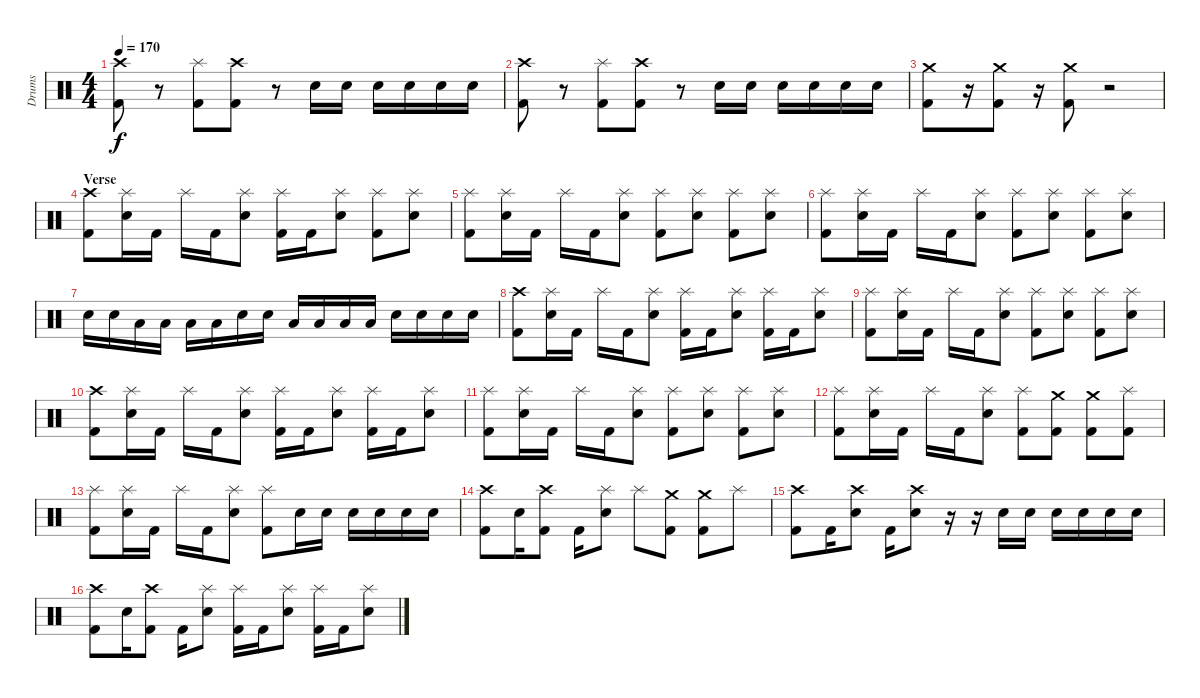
\track ("Drums" "Drums") {instrument percussion}
\staff {score}
\articulation defaults
\ts (4 4)
\tempo 170
\clef neutral
\ks c
("Crash high (hit)" "Kick (hit) 2").8{dy f} r.8 ("Splash (hit)" "Kick (hit) 2").8 ("Crash high (hit)" "Kick (hit) 2").8 r.8 "Electric Snare (hit)".16 "Electric Snare (hit)".16 "Electric Snare (hit)".16 "Electric Snare (hit)".16 "Electric Snare (hit)".16 "Electric Snare (hit)".16 |
("Crash high (hit)" "Kick (hit) 2").8 r.8 ("Splash (hit)" "Kick (hit) 2").8 ("Crash high (hit)" "Kick (hit) 2").8 r.8 "Electric Snare (hit)".16 "Electric Snare (hit)".16 "Electric Snare (hit)".16 "Electric Snare (hit)".16 "Electric Snare (hit)".16 "Electric Snare (hit)".16 |
("Crash medium (hit)" "Kick (hit) 2").8 r.16 ("Crash medium (hit)" "Kick (hit) 2").8 r.16 ("Crash medium (hit)" "Kick (hit) 2").8 r.2 |
\section ("" "Verse")
("Crash high (hit)" "Kick (hit) 2").8 ("Splash (hit)" "Electric Snare (hit)").16 "Kick (hit) 2".16 "Splash (hit)".16 "Kick (hit) 2".16 ("Splash (hit)" "Electric Snare (hit)").8 ("Splash (hit)" "Kick (hit) 2").16 "Kick (hit) 2".16 ("Splash (hit)" "Electric Snare (hit)").8 ("Splash (hit)" "Kick (hit) 2").8 ("Splash (hit)" "Electric Snare (hit)").8 |
("Splash (hit)" "Kick (hit) 2").8 ("Splash (hit)" "Electric Snare (hit)").16 "Kick (hit) 2".16 "Splash (hit)".16 "Kick (hit) 2".16 ("Splash (hit)" "Electric Snare (hit)").8 ("Splash (hit)" "Kick (hit) 2").8 ("Splash (hit)" "Electric Snare (hit)").8 ("Splash (hit)" "Kick (hit) 2").8 ("Splash (hit)" "Electric Snare (hit)").8 |
("Splash (hit)" "Kick (hit) 2").8 ("Splash (hit)" "Electric Snare (hit)").16 "Kick (hit) 2".16 "Splash (hit)".16 "Kick (hit) 2".16 ("Splash (hit)" "Electric Snare (hit)").8 ("Splash (hit)" "Kick (hit) 2").8 ("Splash (hit)" "Electric Snare (hit)").8 ("Splash (hit)" "Kick (hit) 2").8 ("Splash (hit)" "Electric Snare (hit)").8 |
"Electric Snare (hit)".16 "Electric Snare (hit)".16 "Low Tom (hit)".16 "Low Tom (hit)".16 "Low Tom (hit)".16 "Low Tom (hit)".16 "Electric Snare (hit)".16 "Electric Snare (hit)".16 "Low Tom (hit)".16 "Low Tom (hit)".16 "Low Tom (hit)".16 "Low Tom (hit)".16 "Electric Snare (hit)".16 "Electric Snare (hit)".16 "Electric Snare (hit)".16 "Electric Snare (hit)".16 |
("Crash high (hit)" "Kick (hit) 2").8 ("Splash (hit)" "Electric Snare (hit)").16 "Kick (hit) 2".16 "Splash (hit)".16 "Kick (hit) 2".16 ("Splash (hit)" "Electric Snare (hit)").8 ("Splash (hit)" "Kick (hit) 2").16 "Kick (hit) 2".16 ("Splash (hit)" "Electric Snare (hit)").8 ("Splash (hit)" "Kick (hit) 2").16 "Kick (hit) 2".16 ("Splash (hit)" "Electric Snare (hit)").8 |
("Splash (hit)" "Kick (hit) 2").8 ("Splash (hit)" "Electric Snare (hit)").16 "Kick (hit) 2".16 "Splash (hit)".16 "Kick (hit) 2".16 ("Splash (hit)" "Electric Snare (hit)").8 ("Splash (hit)" "Kick (hit) 2").8 ("Splash (hit)" "Electric Snare (hit)").8 ("Splash (hit)" "Kick (hit) 2").8 ("Splash (hit)" "Electric Snare (hit)").8 |
("Crash high (hit)" "Kick (hit) 2").8 ("Splash (hit)" "Electric Snare (hit)").16 "Kick (hit) 2".16 "Splash (hit)".16 "Kick (hit) 2".16 ("Splash (hit)" "Electric Snare (hit)").8 ("Splash (hit)" "Kick (hit) 2").16 "Kick (hit) 2".16 ("Splash (hit)" "Electric Snare (hit)").8 ("Splash (hit)" "Kick (hit) 2").16 "Kick (hit) 2".16 ("Splash (hit)" "Electric Snare (hit)").8 |
("Splash (hit)" "Kick (hit) 2").8 ("Splash (hit)" "Electric Snare (hit)").16 "Kick (hit) 2".16 "Splash (hit)".16 "Kick (hit) 2".16 ("Splash (hit)" "Electric Snare (hit)").8 ("Splash (hit)" "Kick (hit) 2").8 ("Splash (hit)" "Electric Snare (hit)").8 ("Splash (hit)" "Kick (hit) 2").8 ("Splash (hit)" "Electric Snare (hit)").8 |
("Splash (hit)" "Kick (hit) 2").8 ("Splash (hit)" "Electric Snare (hit)").16 "Kick (hit) 2".16 "Splash (hit)".16 "Kick (hit) 2".16 ("Splash (hit)" "Electric Snare (hit)").8 ("Splash (hit)" "Kick (hit) 2").8 ("Crash medium (hit)" "Kick (hit) 2").8 ("Crash medium (hit)" "Kick (hit) 2").8 ("Splash (hit)" "Kick (hit) 2").8 |
("Splash (hit)" "Kick (hit) 2").8 ("Splash (hit)" "Electric Snare (hit)").16 "Kick (hit) 2".16 "Splash (hit)".16 "Kick (hit) 2".16 ("Splash (hit)" "Electric Snare (hit)").8 ("Splash (hit)" "Kick (hit) 2").8 "Electric Snare (hit)".16 "Electric Snare (hit)".16 "Electric Snare (hit)".16 "Electric Snare (hit)".16 "Electric Snare (hit)".16 "Electric Snare (hit)".16 |
("Crash high (hit)" "Kick (hit) 2").8 "Electric Snare (hit)".16 ("Crash high (hit)" "Kick (hit) 2").8 "Kick (hit) 2".16 ("Splash (hit)" "Electric Snare (hit)").8 "Splash (hit)".8 ("Crash medium (hit)" "Kick (hit) 2").8 ("Crash medium (hit)" "Kick (hit) 2").8 "Splash (hit)".8 |
("Crash high (hit)" "Kick (hit) 2").8 "Kick (hit) 2".16 ("Crash high (hit)" "Electric Snare (hit)").8 "Kick (hit) 2".16 ("Crash high (hit)" "Electric Snare (hit)").8 r.16 r.16 "Electric Snare (hit)".16 "Electric Snare (hit)".16 "Electric Snare (hit)".16 "Electric Snare (hit)".16 "Electric Snare (hit)".16 "Electric Snare (hit)".16 |
("Crash high (hit)" "Kick (hit) 2").8 "Electric Snare (hit)".16 ("Crash high (hit)" "Kick (hit) 2").8 "Kick (hit) 2".16 ("Splash (hit)" "Electric Snare (hit)").8 ("Splash (hit)" "Kick (hit) 2").16 "Kick (hit) 2".16 ("Splash (hit)" "Electric Snare (hit)").8 ("Splash (hit)" "Kick (hit) 2").16 "Kick (hit) 2".16 ("Splash (hit)" "Electric Snare (hit)").8
